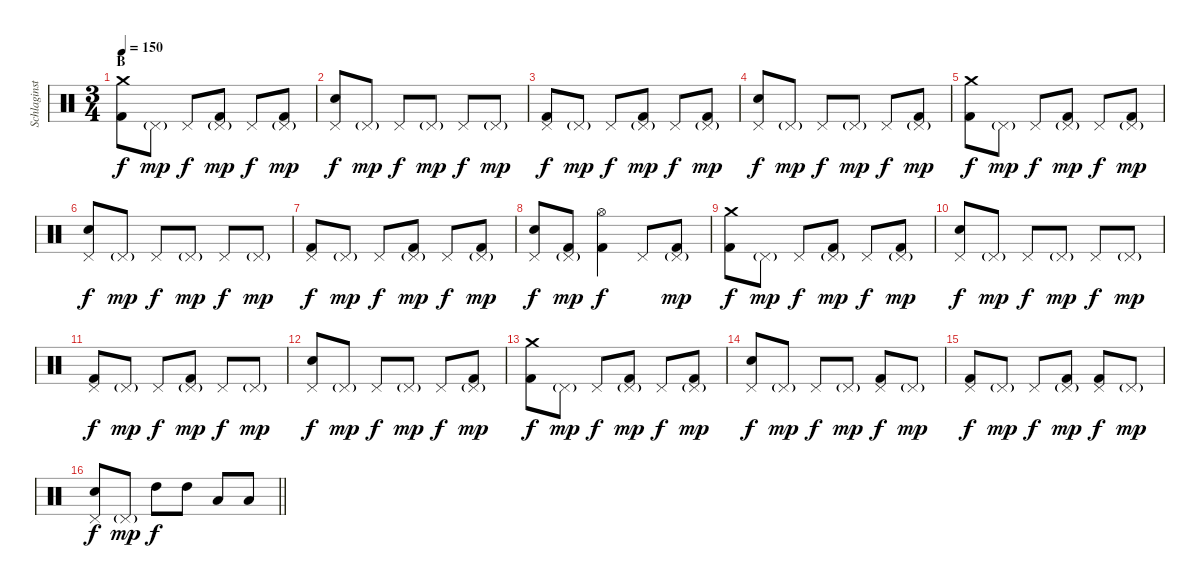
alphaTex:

\track ("Schlaginstrumente - Auswahl" "Schlaginst") {instrument percussion}
\staff {score}
\articulation defaults
\ts (3 4)
\section ("" "B")
\tempo 150
\clef neutral
\ks c
("Crash medium (hit)" "Kick (hit) 2").8{dy f} "Pedal Hi-Hat (hit)"{g}.8{dy mp} "Pedal Hi-Hat (hit)".8{dy f} ("Pedal Hi-Hat (hit)"{g} "Kick (hit) 2").8{dy mp} "Pedal Hi-Hat (hit)".8{dy f} ("Pedal Hi-Hat (hit)"{g} "Kick (hit) 2").8{dy mp} |
("Pedal Hi-Hat (hit)" "Electric Snare (hit)").8{dy f} "Pedal Hi-Hat (hit)"{g}.8{dy mp} "Pedal Hi-Hat (hit)".8{dy f} "Pedal Hi-Hat (hit)"{g}.8{dy mp} "Pedal Hi-Hat (hit)".8{dy f} "Pedal Hi-Hat (hit)"{g}.8{dy mp} |
("Pedal Hi-Hat (hit)" "Kick (hit) 2").8{dy f} "Pedal Hi-Hat (hit)"{g}.8{dy mp} "Pedal Hi-Hat (hit)".8{dy f} ("Pedal Hi-Hat (hit)"{g} "Kick (hit) 2").8{dy mp} "Pedal Hi-Hat (hit)".8{dy f} ("Pedal Hi-Hat (hit)"{g} "Kick (hit) 2").8{dy mp} |
("Pedal Hi-Hat (hit)" "Electric Snare (hit)").8{dy f} "Pedal Hi-Hat (hit)"{g}.8{dy mp} "Pedal Hi-Hat (hit)".8{dy f} "Pedal Hi-Hat (hit)"{g}.8{dy mp} "Pedal Hi-Hat (hit)".8{dy f} ("Pedal Hi-Hat (hit)"{g} "Kick (hit) 2").8{dy mp} |
("Crash medium (hit)" "Kick (hit) 2").8{dy f} "Pedal Hi-Hat (hit)"{g}.8{dy mp} "Pedal Hi-Hat (hit)".8{dy f} ("Pedal Hi-Hat (hit)"{g} "Kick (hit) 2").8{dy mp} "Pedal Hi-Hat (hit)".8{dy f} ("Pedal Hi-Hat (hit)"{g} "Kick (hit) 2").8{dy mp} |
("Pedal Hi-Hat (hit)" "Electric Snare (hit)").8{dy f} "Pedal Hi-Hat (hit)"{g}.8{dy mp} "Pedal Hi-Hat (hit)".8{dy f} "Pedal Hi-Hat (hit)"{g}.8{dy mp} "Pedal Hi-Hat (hit)".8{dy f} "Pedal Hi-Hat (hit)"{g}.8{dy mp} |
("Pedal Hi-Hat (hit)" "Kick (hit) 2").8{dy f} "Pedal Hi-Hat (hit)"{g}.8{dy mp} "Pedal Hi-Hat (hit)".8{dy f} ("Pedal Hi-Hat (hit)"{g} "Kick (hit) 2").8{dy mp} "Pedal Hi-Hat (hit)".8{dy f} ("Pedal Hi-Hat (hit)"{g} "Kick (hit) 2").8{dy mp} |
("Pedal Hi-Hat (hit)" "Electric Snare (hit)").8{dy f} ("Pedal Hi-Hat (hit)"{g} "Kick (hit) 2").8{dy mp} ("Hi-Hat (open)" "Kick (hit) 2").4{dy f} "Pedal Hi-Hat (hit)".8 ("Pedal Hi-Hat (hit)"{g} "Kick (hit) 2").8{dy mp} |
("Crash medium (hit)" "Kick (hit) 2").8{dy f} "Pedal Hi-Hat (hit)"{g}.8{dy mp} "Pedal Hi-Hat (hit)".8{dy f} ("Pedal Hi-Hat (hit)"{g} "Kick (hit) 2").8{dy mp} "Pedal Hi-Hat (hit)".8{dy f} ("Pedal Hi-Hat (hit)"{g} "Kick (hit) 2").8{dy mp} |
("Pedal Hi-Hat (hit)" "Electric Snare (hit)").8{dy f} "Pedal Hi-Hat (hit)"{g}.8{dy mp} "Pedal Hi-Hat (hit)".8{dy f} "Pedal Hi-Hat (hit)"{g}.8{dy mp} "Pedal Hi-Hat (hit)".8{dy f} "Pedal Hi-Hat (hit)"{g}.8{dy mp} |
("Pedal Hi-Hat (hit)" "Kick (hit) 2").8{dy f} "Pedal Hi-Hat (hit)"{g}.8{dy mp} "Pedal Hi-Hat (hit)".8{dy f} ("Pedal Hi-Hat (hit)"{g} "Kick (hit) 2").8{dy mp} "Pedal Hi-Hat (hit)".8{dy f} "Pedal Hi-Hat (hit)"{g}.8{dy mp} |
("Pedal Hi-Hat (hit)" "Electric Snare (hit)").8{dy f} "Pedal Hi-Hat (hit)"{g}.8{dy mp} "Pedal Hi-Hat (hit)".8{dy f} "Pedal Hi-Hat (hit)"{g}.8{dy mp} "Pedal Hi-Hat (hit)".8{dy f} ("Pedal Hi-Hat (hit)"{g} "Kick (hit) 2").8{dy mp} |
("Crash medium (hit)" "Kick (hit) 2").8{dy f} "Pedal Hi-Hat (hit)"{g}.8{dy mp} "Pedal Hi-Hat (hit)".8{dy f} ("Pedal Hi-Hat (hit)"{g} "Kick (hit) 2").8{dy mp} "Pedal Hi-Hat (hit)".8{dy f} ("Pedal Hi-Hat (hit)"{g} "Kick (hit) 2").8{dy mp} |
("Pedal Hi-Hat (hit)" "Electric Snare (hit)").8{dy f} "Pedal Hi-Hat (hit)"{g}.8{dy mp} "Pedal Hi-Hat (hit)".8{dy f} "Pedal Hi-Hat (hit)"{g}.8{dy mp} ("Pedal Hi-Hat (hit)" "Kick (hit) 2").8{dy f} "Pedal Hi-Hat (hit)"{g}.8{dy mp} |
("Pedal Hi-Hat (hit)" "Kick (hit) 2").8{dy f} "Pedal Hi-Hat (hit)"{g}.8{dy mp} "Pedal Hi-Hat (hit)".8{dy f} ("Pedal Hi-Hat (hit)"{g} "Kick (hit) 2").8{dy mp} ("Pedal Hi-Hat (hit)" "Kick (hit) 2").8{dy f} "Pedal Hi-Hat (hit)"{g}.8{dy mp} |
\barLineRight lightlight
("Pedal Hi-Hat (hit)" "Electric Snare (hit)").8{dy f} "Pedal Hi-Hat (hit)"{g}.8{dy mp} "High Tom (hit)".8{dy f} "High Tom (hit)".8 "Low Tom (hit)".8 "Low Tom (hit)".8
